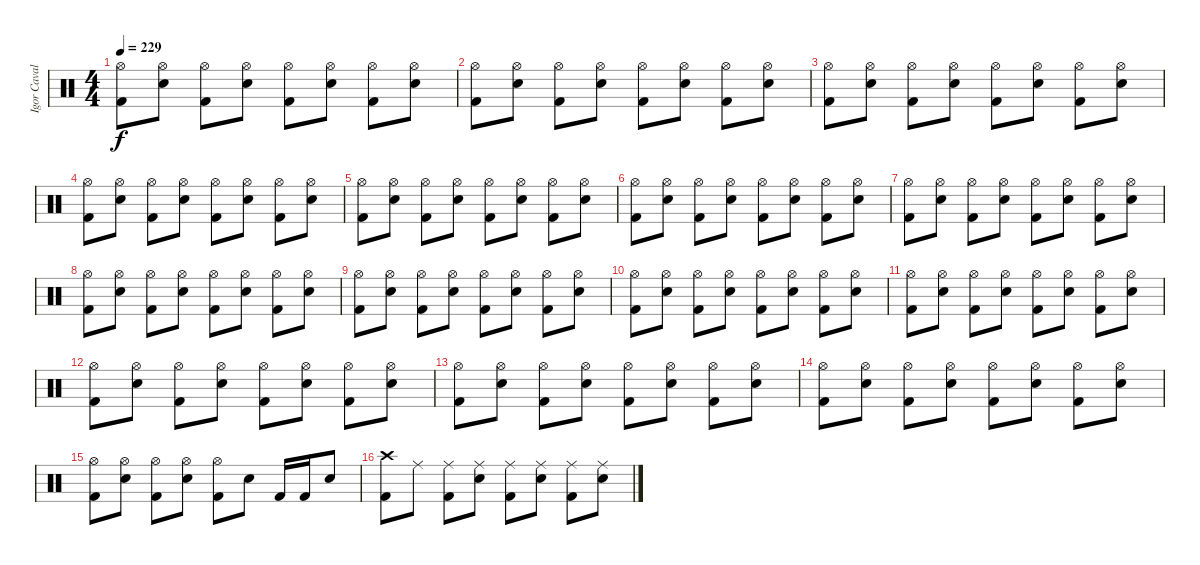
\track ("Igor Cavalera" "Igor Caval") {instrument percussion}
\staff {score}
\articulation defaults
\ts (4 4)
\tempo 229
\clef neutral
\ks c
("Kick (hit) 2" "Hi-Hat (open)").8{dy f} ("Snare (hit) 2" "Hi-Hat (open)").8 ("Kick (hit) 2" "Hi-Hat (open)").8 ("Snare (hit) 2" "Hi-Hat (open)").8 ("Kick (hit) 2" "Hi-Hat (open)").8 ("Snare (hit) 2" "Hi-Hat (open)").8 ("Kick (hit) 2" "Hi-Hat (open)").8 ("Snare (hit) 2" "Hi-Hat (open)").8 |
("Kick (hit) 2" "Hi-Hat (open)").8 ("Snare (hit) 2" "Hi-Hat (open)").8 ("Kick (hit) 2" "Hi-Hat (open)").8 ("Snare (hit) 2" "Hi-Hat (open)").8 ("Kick (hit) 2" "Hi-Hat (open)").8 ("Snare (hit) 2" "Hi-Hat (open)").8 ("Kick (hit) 2" "Hi-Hat (open)").8 ("Snare (hit) 2" "Hi-Hat (open)").8 |
("Kick (hit) 2" "Hi-Hat (open)").8 ("Snare (hit) 2" "Hi-Hat (open)").8 ("Kick (hit) 2" "Hi-Hat (open)").8 ("Snare (hit) 2" "Hi-Hat (open)").8 ("Kick (hit) 2" "Hi-Hat (open)").8 ("Snare (hit) 2" "Hi-Hat (open)").8 ("Kick (hit) 2" "Hi-Hat (open)").8 ("Snare (hit) 2" "Hi-Hat (open)").8 |
("Kick (hit) 2" "Hi-Hat (open)").8 ("Snare (hit) 2" "Hi-Hat (open)").8 ("Kick (hit) 2" "Hi-Hat (open)").8 ("Snare (hit) 2" "Hi-Hat (open)").8 ("Kick (hit) 2" "Hi-Hat (open)").8 ("Snare (hit) 2" "Hi-Hat (open)").8 ("Kick (hit) 2" "Hi-Hat (open)").8 ("Snare (hit) 2" "Hi-Hat (open)").8 |
("Kick (hit) 2" "Hi-Hat (open)").8 ("Snare (hit) 2" "Hi-Hat (open)").8 ("Kick (hit) 2" "Hi-Hat (open)").8 ("Snare (hit) 2" "Hi-Hat (open)").8 ("Kick (hit) 2" "Hi-Hat (open)").8 ("Snare (hit) 2" "Hi-Hat (open)").8 ("Kick (hit) 2" "Hi-Hat (open)").8 ("Snare (hit) 2" "Hi-Hat (open)").8 |
("Kick (hit) 2" "Hi-Hat (open)").8 ("Snare (hit) 2" "Hi-Hat (open)").8 ("Kick (hit) 2" "Hi-Hat (open)").8 ("Snare (hit) 2" "Hi-Hat (open)").8 ("Kick (hit) 2" "Hi-Hat (open)").8 ("Snare (hit) 2" "Hi-Hat (open)").8 ("Kick (hit) 2" "Hi-Hat (open)").8 ("Snare (hit) 2" "Hi-Hat (open)").8 |
("Kick (hit) 2" "Hi-Hat (open)").8 ("Snare (hit) 2" "Hi-Hat (open)").8 ("Kick (hit) 2" "Hi-Hat (open)").8 ("Snare (hit) 2" "Hi-Hat (open)").8 ("Kick (hit) 2" "Hi-Hat (open)").8 ("Snare (hit) 2" "Hi-Hat (open)").8 ("Kick (hit) 2" "Hi-Hat (open)").8 ("Snare (hit) 2" "Hi-Hat (open)").8 |
("Kick (hit) 2" "Hi-Hat (open)").8 ("Snare (hit) 2" "Hi-Hat (open)").8 ("Kick (hit) 2" "Hi-Hat (open)").8 ("Snare (hit) 2" "Hi-Hat (open)").8 ("Kick (hit) 2" "Hi-Hat (open)").8 ("Snare (hit) 2" "Hi-Hat (open)").8 ("Kick (hit) 2" "Hi-Hat (open)").8 ("Snare (hit) 2" "Hi-Hat (open)").8 |
("Kick (hit) 2" "Hi-Hat (open)").8 ("Snare (hit) 2" "Hi-Hat (open)").8 ("Kick (hit) 2" "Hi-Hat (open)").8 ("Snare (hit) 2" "Hi-Hat (open)").8 ("Kick (hit) 2" "Hi-Hat (open)").8 ("Snare (hit) 2" "Hi-Hat (open)").8 ("Kick (hit) 2" "Hi-Hat (open)").8 ("Snare (hit) 2" "Hi-Hat (open)").8 |
("Kick (hit) 2" "Hi-Hat (open)").8 ("Snare (hit) 2" "Hi-Hat (open)").8 ("Kick (hit) 2" "Hi-Hat (open)").8 ("Snare (hit) 2" "Hi-Hat (open)").8 ("Kick (hit) 2" "Hi-Hat (open)").8 ("Snare (hit) 2" "Hi-Hat (open)").8 ("Kick (hit) 2" "Hi-Hat (open)").8 ("Snare (hit) 2" "Hi-Hat (open)").8 |
("Kick (hit) 2" "Hi-Hat (open)").8 ("Snare (hit) 2" "Hi-Hat (open)").8 ("Kick (hit) 2" "Hi-Hat (open)").8 ("Snare (hit) 2" "Hi-Hat (open)").8 ("Kick (hit) 2" "Hi-Hat (open)").8 ("Snare (hit) 2" "Hi-Hat (open)").8 ("Kick (hit) 2" "Hi-Hat (open)").8 ("Snare (hit) 2" "Hi-Hat (open)").8 |
("Kick (hit) 2" "Hi-Hat (open)").8 ("Snare (hit) 2" "Hi-Hat (open)").8 ("Kick (hit) 2" "Hi-Hat (open)").8 ("Snare (hit) 2" "Hi-Hat (open)").8 ("Kick (hit) 2" "Hi-Hat (open)").8 ("Snare (hit) 2" "Hi-Hat (open)").8 ("Kick (hit) 2" "Hi-Hat (open)").8 ("Snare (hit) 2" "Hi-Hat (open)").8 |
("Kick (hit) 2" "Hi-Hat (open)").8 ("Snare (hit) 2" "Hi-Hat (open)").8 ("Kick (hit) 2" "Hi-Hat (open)").8 ("Snare (hit) 2" "Hi-Hat (open)").8 ("Kick (hit) 2" "Hi-Hat (open)").8 ("Snare (hit) 2" "Hi-Hat (open)").8 ("Kick (hit) 2" "Hi-Hat (open)").8 ("Snare (hit) 2" "Hi-Hat (open)").8 |
("Kick (hit) 2" "Hi-Hat (open)").8 ("Snare (hit) 2" "Hi-Hat (open)").8 ("Kick (hit) 2" "Hi-Hat (open)").8 ("Snare (hit) 2" "Hi-Hat (open)").8 ("Kick (hit) 2" "Hi-Hat (open)").8 ("Snare (hit) 2" "Hi-Hat (open)").8 ("Kick (hit) 2" "Hi-Hat (open)").8 ("Snare (hit) 2" "Hi-Hat (open)").8 |
("Kick (hit) 2" "Hi-Hat (open)").8 ("Snare (hit) 2" "Hi-Hat (open)").8 ("Kick (hit) 2" "Hi-Hat (open)").8 ("Snare (hit) 2" "Hi-Hat (open)").8 ("Kick (hit) 2" "Hi-Hat (open)").8 "Snare (hit) 2".8 "Kick (hit) 2".16 "Kick (hit) 2".16 "Snare (hit) 2".8 |
("Kick (hit) 2" "Crash high (hit)").8 "Ride (middle)".8 ("Kick (hit) 2" "Ride (middle)").8 ("Snare (hit) 2" "Ride (middle)").8 ("Kick (hit) 2" "Ride (middle)").8 ("Snare (hit) 2" "Ride (middle)").8 ("Kick (hit) 2" "Ride (middle)").8 ("Snare (hit) 2" "Ride (middle)").8
